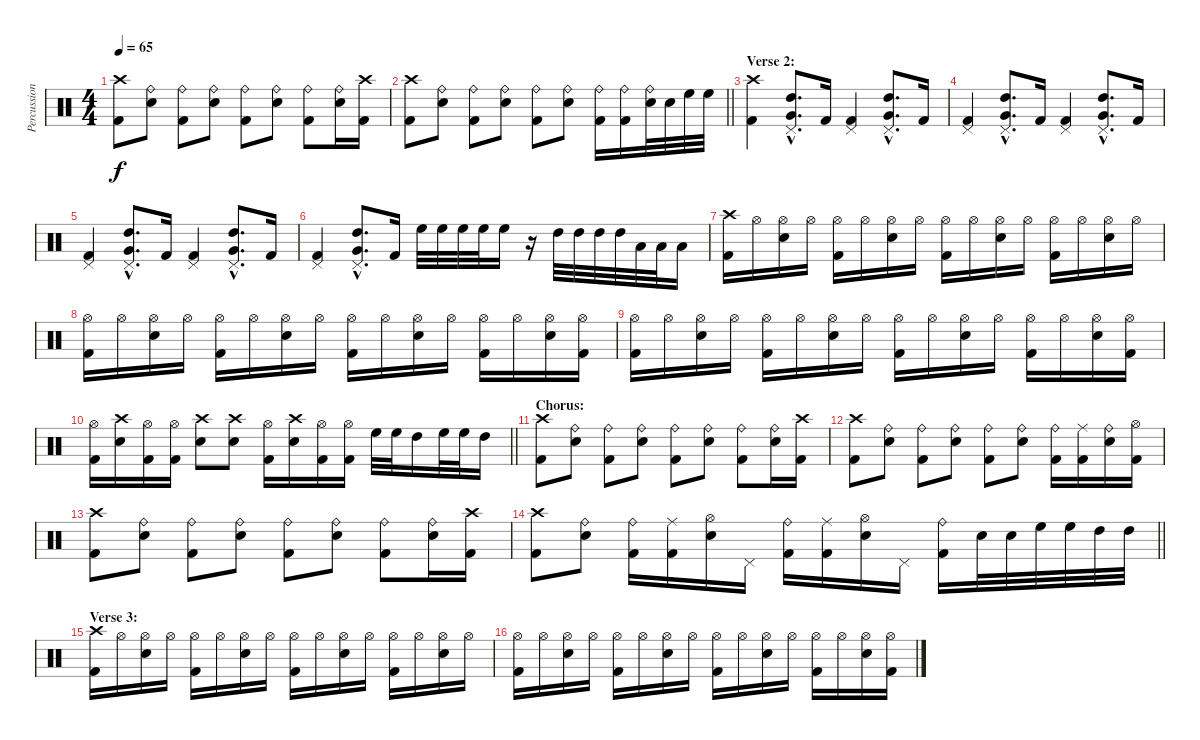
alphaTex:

\track ("Percussion" "Percussion") {instrument percussion}
\staff {score}
\articulation defaults
\ts (4 4)
\tempo 65
\clef neutral
\ks c
("Crash high (hit)" "Kick (hit) 2").8{dy f} ("Ride (bell)" "Electric Snare (hit)").8 ("Ride (bell)" "Kick (hit) 2").8 ("Ride (bell)" "Electric Snare (hit)").8 ("Ride (bell)" "Kick (hit) 2").8 ("Ride (bell)" "Electric Snare (hit)").8 ("Ride (bell)" "Kick (hit) 2").8 ("Ride (bell)" "Electric Snare (hit)").16 ("Crash high (hit)" "Kick (hit) 2").16 |
\barLineRight lightlight
("Crash high (hit)" "Kick (hit) 2").8 ("Ride (bell)" "Electric Snare (hit)").8 ("Ride (bell)" "Kick (hit) 2").8 ("Ride (bell)" "Electric Snare (hit)").8 ("Ride (bell)" "Kick (hit) 2").8 ("Ride (bell)" "Electric Snare (hit)").8 ("Ride (bell)" "Kick (hit) 2").16 ("Ride (bell)" "Kick (hit) 2").16 ("Ride (bell)" "Electric Snare (hit)").32 "Electric Snare (hit)".32 "High Floor Tom (hit)".32 "High Floor Tom (hit)".32 |
\section ("" "Verse 2:")
("Crash high (hit)" "Kick (hit) 2").4 ("Pedal Hi-Hat (hit)"{hac} "High Tom (hit)"{hac} "Very Low Tom (hit)"{hac}).8{d} "Kick (hit) 2".16 ("Pedal Hi-Hat (hit)" "Kick (hit) 2").4 ("Pedal Hi-Hat (hit)"{hac} "High Tom (hit)"{hac} "Very Low Tom (hit)"{hac}).8{d} "Kick (hit) 2".16 |
("Pedal Hi-Hat (hit)" "Kick (hit) 2").4 ("Pedal Hi-Hat (hit)"{hac} "High Tom (hit)"{hac} "Very Low Tom (hit)"{hac}).8{d} "Kick (hit) 2".16 ("Pedal Hi-Hat (hit)" "Kick (hit) 2").4 ("Pedal Hi-Hat (hit)"{hac} "High Tom (hit)"{hac} "Very Low Tom (hit)"{hac}).8{d} "Kick (hit) 2".16 |
("Pedal Hi-Hat (hit)" "Kick (hit) 2").4 ("Pedal Hi-Hat (hit)"{hac} "High Tom (hit)"{hac} "Very Low Tom (hit)"{hac}).8{d} "Kick (hit) 2".16 ("Pedal Hi-Hat (hit)" "Kick (hit) 2").4 ("Pedal Hi-Hat (hit)"{hac} "High Tom (hit)"{hac} "Very Low Tom (hit)"{hac}).8{d} "Kick (hit) 2".16 |
("Pedal Hi-Hat (hit)" "Kick (hit) 2").4 ("Pedal Hi-Hat (hit)"{hac} "High Tom (hit)"{hac} "Very Low Tom (hit)"{hac}).8{d} "Kick (hit) 2".16 "High Floor Tom (hit)".32 "High Floor Tom (hit)".32 "High Floor Tom (hit)".32 "High Floor Tom (hit)".32 "High Floor Tom (hit)".16 r.16 "High Tom (hit)".32 "High Tom (hit)".32 "High Tom (hit)".32 "High Tom (hit)".32 "Low Tom (hit)".32 "Low Tom (hit)".32 "Low Tom (hit)".16 |
("Crash high (hit)" "Kick (hit) 2").16 "Hi-Hat (open)".16 ("Hi-Hat (open)" "Electric Snare (hit)").16 "Hi-Hat (open)".16 ("Hi-Hat (open)" "Kick (hit) 2").16 "Hi-Hat (open)".16 ("Hi-Hat (open)" "Electric Snare (hit)").16 "Hi-Hat (open)".16 ("Hi-Hat (open)" "Kick (hit) 2").16 "Hi-Hat (open)".16 ("Hi-Hat (open)" "Electric Snare (hit)").16 "Hi-Hat (open)".16 ("Hi-Hat (open)" "Kick (hit) 2").16 "Hi-Hat (open)".16 ("Hi-Hat (open)" "Electric Snare (hit)").16 "Hi-Hat (open)".16 |
("Hi-Hat (open)" "Kick (hit) 2").16 "Hi-Hat (open)".16 ("Hi-Hat (open)" "Electric Snare (hit)").16 "Hi-Hat (open)".16 ("Hi-Hat (open)" "Kick (hit) 2").16 "Hi-Hat (open)".16 ("Hi-Hat (open)" "Electric Snare (hit)").16 "Hi-Hat (open)".16 ("Hi-Hat (open)" "Kick (hit) 2").16 "Hi-Hat (open)".16 ("Hi-Hat (open)" "Electric Snare (hit)").16 "Hi-Hat (open)".16 ("Hi-Hat (open)" "Kick (hit) 2").16 "Hi-Hat (open)".16 ("Hi-Hat (open)" "Electric Snare (hit)").16 ("Hi-Hat (open)" "Kick (hit) 2").16 |
("Hi-Hat (open)" "Kick (hit) 2").16 "Hi-Hat (open)".16 ("Hi-Hat (open)" "Electric Snare (hit)").16 "Hi-Hat (open)".16 ("Hi-Hat (open)" "Kick (hit) 2").16 "Hi-Hat (open)".16 ("Hi-Hat (open)" "Electric Snare (hit)").16 "Hi-Hat (open)".16 ("Hi-Hat (open)" "Kick (hit) 2").16 "Hi-Hat (open)".16 ("Hi-Hat (open)" "Electric Snare (hit)").16 "Hi-Hat (open)".16 ("Hi-Hat (open)" "Kick (hit) 2").16 "Hi-Hat (open)".16 ("Hi-Hat (open)" "Electric Snare (hit)").16 ("Hi-Hat (open)" "Kick (hit) 2").16 |
\barLineRight lightlight
("Hi-Hat (open)" "Kick (hit) 2").16 ("Crash high (hit)" "Electric Snare (hit)").16 ("Hi-Hat (open)" "Kick (hit) 2").16 ("Hi-Hat (open)" "Kick (hit) 2").16 ("Crash high (hit)" "Electric Snare (hit)").8 ("Crash high (hit)" "Electric Snare (hit)").8 ("Hi-Hat (open)" "Kick (hit) 2").16 ("Crash high (hit)" "Electric Snare (hit)").16 ("Hi-Hat (open)" "Kick (hit) 2").16 ("Hi-Hat (open)" "Kick (hit) 2").16 "High Floor Tom (hit)".32 "High Floor Tom (hit)".32 "High Tom (hit)".16 "High Floor Tom (hit)".32 "High Floor Tom (hit)".32 "High Tom (hit)".16 |
\section ("" "Chorus:")
("Crash high (hit)" "Kick (hit) 2").8 ("Ride (bell)" "Electric Snare (hit)").8 ("Ride (bell)" "Kick (hit) 2").8 ("Ride (bell)" "Electric Snare (hit)").8 ("Ride (bell)" "Kick (hit) 2").8 ("Ride (bell)" "Electric Snare (hit)").8 ("Ride (bell)" "Kick (hit) 2").8 ("Ride (bell)" "Electric Snare (hit)").16 ("Crash high (hit)" "Kick (hit) 2").16 |
("Crash high (hit)" "Kick (hit) 2").8 ("Ride (bell)" "Electric Snare (hit)").8 ("Ride (bell)" "Kick (hit) 2").8 ("Ride (bell)" "Electric Snare (hit)").8 ("Ride (bell)" "Kick (hit) 2").8 ("Ride (bell)" "Electric Snare (hit)").8 ("Ride (bell)" "Kick (hit) 2").16 ("Ride (middle)" "Kick (hit) 2").16 ("Ride (bell)" "Electric Snare (hit)").16 ("Hi-Hat (open)" "Kick (hit) 2").16 |
("Crash high (hit)" "Kick (hit) 2").8 ("Ride (bell)" "Electric Snare (hit)").8 ("Ride (bell)" "Kick (hit) 2").8 ("Ride (bell)" "Electric Snare (hit)").8 ("Ride (bell)" "Kick (hit) 2").8 ("Ride (bell)" "Electric Snare (hit)").8 ("Ride (bell)" "Kick (hit) 2").8 ("Ride (bell)" "Electric Snare (hit)").16 ("Crash high (hit)" "Kick (hit) 2").16 |
\barLineRight lightlight
("Crash high (hit)" "Kick (hit) 2").8 ("Ride (bell)" "Electric Snare (hit)").8 ("Ride (bell)" "Kick (hit) 2").16 ("Ride (middle)" "Kick (hit) 2").16 ("Hi-Hat (open)" "Electric Snare (hit)").16 "Pedal Hi-Hat (hit)".16 ("Ride (bell)" "Kick (hit) 2").16 ("Ride (middle)" "Kick (hit) 2").16 ("Hi-Hat (open)" "Electric Snare (hit)").16 "Pedal Hi-Hat (hit)".16 ("Ride (bell)" "Kick (hit) 2").16 "Electric Snare (hit)".32 "Electric Snare (hit)".32 "High Floor Tom (hit)".32 "High Floor Tom (hit)".32 "High Tom (hit)".32 "High Tom (hit)".32 |
\section ("" "Verse 3:")
("Crash high (hit)" "Kick (hit) 2").16 "Hi-Hat (open)".16 ("Hi-Hat (open)" "Electric Snare (hit)").16 "Hi-Hat (open)".16 ("Hi-Hat (open)" "Kick (hit) 2").16 "Hi-Hat (open)".16 ("Hi-Hat (open)" "Electric Snare (hit)").16 "Hi-Hat (open)".16 ("Hi-Hat (open)" "Kick (hit) 2").16 "Hi-Hat (open)".16 ("Hi-Hat (open)" "Electric Snare (hit)").16 "Hi-Hat (open)".16 ("Hi-Hat (open)" "Kick (hit) 2").16 "Hi-Hat (open)".16 ("Hi-Hat (open)" "Electric Snare (hit)").16 "Hi-Hat (open)".16 |
("Hi-Hat (open)" "Kick (hit) 2").16 "Hi-Hat (open)".16 ("Hi-Hat (open)" "Electric Snare (hit)").16 "Hi-Hat (open)".16 ("Hi-Hat (open)" "Kick (hit) 2").16 "Hi-Hat (open)".16 ("Hi-Hat (open)" "Electric Snare (hit)").16 "Hi-Hat (open)".16 ("Hi-Hat (open)" "Kick (hit) 2").16 "Hi-Hat (open)".16 ("Hi-Hat (open)" "Electric Snare (hit)").16 "Hi-Hat (open)".16 ("Hi-Hat (open)" "Kick (hit) 2").16 "Hi-Hat (open)".16 ("Hi-Hat (open)" "Electric Snare (hit)").16 ("Hi-Hat (open)" "Kick (hit) 2").16
